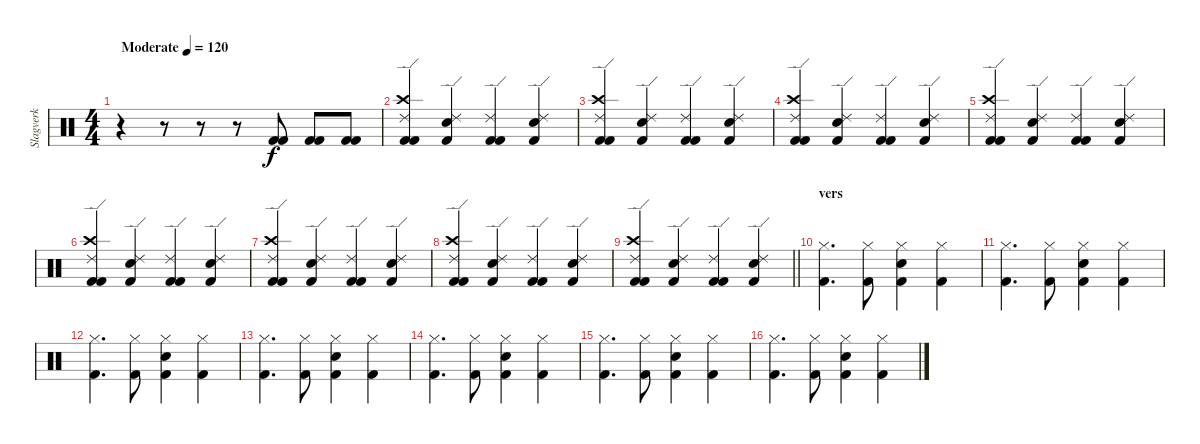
\track ("Slagverk" "Slagverk") {instrument percussion}
\staff {score}
\articulation defaults
\ts (4 4)
\tempo (120 "Moderate")
\clef neutral
\ks c
r.4{dy f} r.8 r.8 r.8 ("Kick (hit) 2" "Kick (hit) 2").8 ("Kick (hit) 2" "Kick (hit) 2").8 ("Kick (hit) 2" "Kick (hit) 2").8 |
("Kick (hit) 2" "Kick (hit) 2" "Crash high (hit)" "Ride (edge) 2").4 ("Snare (hit) 2" "Kick (hit) 2" "Ride (edge) 2").4 ("Kick (hit) 2" "Kick (hit) 2" "Ride (edge) 2").4 ("Snare (hit) 2" "Kick (hit) 2" "Ride (edge) 2").4 |
("Kick (hit) 2" "Kick (hit) 2" "Crash high (hit)" "Ride (edge) 2").4 ("Snare (hit) 2" "Kick (hit) 2" "Ride (edge) 2").4 ("Kick (hit) 2" "Kick (hit) 2" "Ride (edge) 2").4 ("Snare (hit) 2" "Kick (hit) 2" "Ride (edge) 2").4 |
("Kick (hit) 2" "Kick (hit) 2" "Crash high (hit)" "Ride (edge) 2").4 ("Snare (hit) 2" "Kick (hit) 2" "Ride (edge) 2").4 ("Kick (hit) 2" "Kick (hit) 2" "Ride (edge) 2").4 ("Snare (hit) 2" "Kick (hit) 2" "Ride (edge) 2").4 |
("Kick (hit) 2" "Kick (hit) 2" "Crash high (hit)" "Ride (edge) 2").4 ("Snare (hit) 2" "Kick (hit) 2" "Ride (edge) 2").4 ("Kick (hit) 2" "Kick (hit) 2" "Ride (edge) 2").4 ("Snare (hit) 2" "Kick (hit) 2" "Ride (edge) 2").4 |
("Kick (hit) 2" "Kick (hit) 2" "Crash high (hit)" "Ride (edge) 2").4 ("Snare (hit) 2" "Kick (hit) 2" "Ride (edge) 2").4 ("Kick (hit) 2" "Kick (hit) 2" "Ride (edge) 2").4 ("Snare (hit) 2" "Kick (hit) 2" "Ride (edge) 2").4 |
("Kick (hit) 2" "Kick (hit) 2" "Crash high (hit)" "Ride (edge) 2").4 ("Snare (hit) 2" "Kick (hit) 2" "Ride (edge) 2").4 ("Kick (hit) 2" "Kick (hit) 2" "Ride (edge) 2").4 ("Snare (hit) 2" "Kick (hit) 2" "Ride (edge) 2").4 |
("Kick (hit) 2" "Kick (hit) 2" "Crash high (hit)" "Ride (edge) 2").4 ("Snare (hit) 2" "Kick (hit) 2" "Ride (edge) 2").4 ("Kick (hit) 2" "Kick (hit) 2" "Ride (edge) 2").4 ("Snare (hit) 2" "Kick (hit) 2" "Ride (edge) 2").4 |
\barLineRight lightlight
("Kick (hit) 2" "Kick (hit) 2" "Crash high (hit)" "Ride (edge) 2").4 ("Snare (hit) 2" "Kick (hit) 2" "Ride (edge) 2").4 ("Kick (hit) 2" "Kick (hit) 2" "Ride (edge) 2").4 ("Snare (hit) 2" "Kick (hit) 2" "Ride (edge) 2").4 |
\section ("" "vers")
("Kick (hit) 2" "Hi-Hat (closed)").4{d} ("Kick (hit) 2" "Hi-Hat (closed)").8 ("Kick (hit) 2" "Hi-Hat (closed)" "Snare (hit) 2").4 ("Kick (hit) 2" "Hi-Hat (closed)").4 |
("Kick (hit) 2" "Hi-Hat (closed)").4{d} ("Kick (hit) 2" "Hi-Hat (closed)").8 ("Kick (hit) 2" "Hi-Hat (closed)" "Snare (hit) 2").4 ("Kick (hit) 2" "Hi-Hat (closed)").4 |
("Kick (hit) 2" "Hi-Hat (closed)").4{d} ("Kick (hit) 2" "Hi-Hat (closed)").8 ("Kick (hit) 2" "Hi-Hat (closed)" "Snare (hit) 2").4 ("Kick (hit) 2" "Hi-Hat (closed)").4 |
("Kick (hit) 2" "Hi-Hat (closed)").4{d} ("Kick (hit) 2" "Hi-Hat (closed)").8 ("Kick (hit) 2" "Hi-Hat (closed)" "Snare (hit) 2").4 ("Kick (hit) 2" "Hi-Hat (closed)").4 |
("Kick (hit) 2" "Hi-Hat (closed)").4{d} ("Kick (hit) 2" "Hi-Hat (closed)").8 ("Kick (hit) 2" "Hi-Hat (closed)" "Snare (hit) 2").4 ("Kick (hit) 2" "Hi-Hat (closed)").4 |
("Kick (hit) 2" "Hi-Hat (closed)").4{d} ("Kick (hit) 2" "Hi-Hat (closed)").8 ("Kick (hit) 2" "Hi-Hat (closed)" "Snare (hit) 2").4 ("Kick (hit) 2" "Hi-Hat (closed)").4 |
("Kick (hit) 2" "Hi-Hat (closed)").4{d} ("Kick (hit) 2" "Hi-Hat (closed)").8 ("Kick (hit) 2" "Hi-Hat (closed)" "Snare (hit) 2").4 ("Kick (hit) 2" "Hi-Hat (closed)").4
